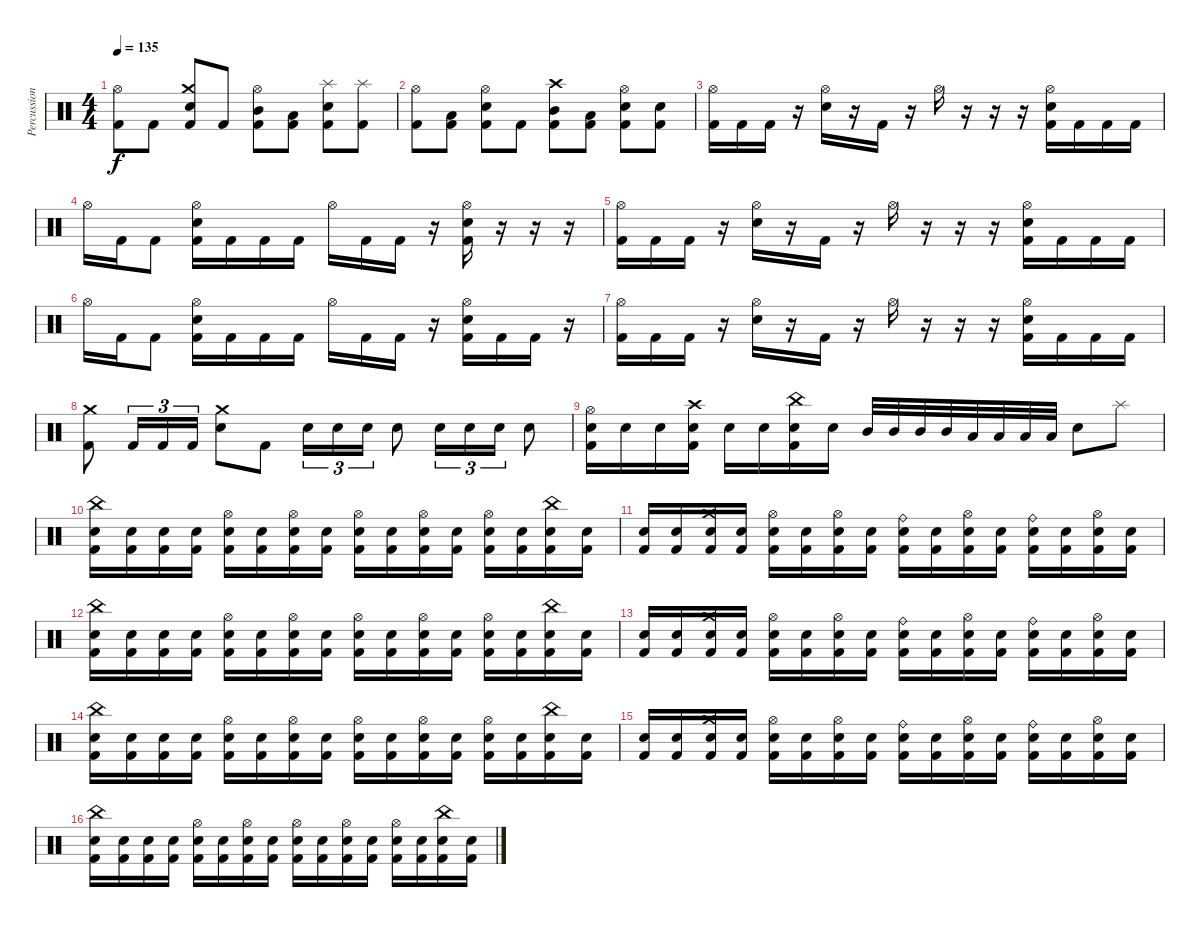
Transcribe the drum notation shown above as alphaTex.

\track ("Percussion" "Percussion") {instrument percussion}
\staff {score}
\articulation defaults
\ts (4 4)
\tempo 135
\clef neutral
\ks c
("Hi-Hat (open)" "Kick (hit) 2").8{dy f} "Kick (hit) 2".8 ("Crash medium (hit)" "Electric Snare (hit)" "Kick (hit) 2").8 "Kick (hit) 2".8 ("Hi-Hat (open)" "Mid Tom (hit)" "Kick (hit) 2").8 ("Low Tom (hit)" "Kick (hit) 2").8 ("Splash (hit)" "Electric Snare (hit)" "Kick (hit) 2").8 ("Splash (hit)" "Kick (hit) 2").8 |
("Hi-Hat (open)" "Kick (hit) 2").8 ("Low Tom (hit)" "Kick (hit) 2").8 ("Hi-Hat (open)" "Electric Snare (hit)" "Kick (hit) 2").8 "Kick (hit) 2".8 ("Crash high (hit)" "Mid Tom (hit)" "Kick (hit) 2").8 ("Low Tom (hit)" "Kick (hit) 2").8 ("Hi-Hat (open)" "Electric Snare (hit)" "Kick (hit) 2").8 ("Electric Snare (hit)" "Kick (hit) 2").8 |
("Hi-Hat (open)" "Kick (hit) 2").16 "Kick (hit) 2".16 "Kick (hit) 2".16 r.16 ("Hi-Hat (open)" "Electric Snare (hit)").16 r.16 "Kick (hit) 2".16 r.16 "Hi-Hat (open)".16 r.16 r.16 r.16 ("Hi-Hat (open)" "Electric Snare (hit)" "Kick (hit) 2").16 "Kick (hit) 2".16 "Kick (hit) 2".16 "Kick (hit) 2".16 |
"Hi-Hat (open)".16 "Kick (hit) 2".16 "Kick (hit) 2".8 ("Hi-Hat (open)" "Electric Snare (hit)" "Kick (hit) 2").16 "Kick (hit) 2".16 "Kick (hit) 2".16 "Kick (hit) 2".16 "Hi-Hat (open)".16 "Kick (hit) 2".16 "Kick (hit) 2".16 r.16 ("Hi-Hat (open)" "Electric Snare (hit)" "Kick (hit) 2").16 r.16 r.16 r.16 |
("Hi-Hat (open)" "Kick (hit) 2").16 "Kick (hit) 2".16 "Kick (hit) 2".16 r.16 ("Hi-Hat (open)" "Electric Snare (hit)").16 r.16 "Kick (hit) 2".16 r.16 "Hi-Hat (open)".16 r.16 r.16 r.16 ("Hi-Hat (open)" "Electric Snare (hit)" "Kick (hit) 2").16 "Kick (hit) 2".16 "Kick (hit) 2".16 "Kick (hit) 2".16 |
"Hi-Hat (open)".16 "Kick (hit) 2".16 "Kick (hit) 2".8 ("Hi-Hat (open)" "Electric Snare (hit)" "Kick (hit) 2").16 "Kick (hit) 2".16 "Kick (hit) 2".16 "Kick (hit) 2".16 "Hi-Hat (open)".16 "Kick (hit) 2".16 "Kick (hit) 2".16 r.16 ("Hi-Hat (open)" "Electric Snare (hit)" "Kick (hit) 2").16 "Kick (hit) 2".16 "Kick (hit) 2".16 r.16 |
("Hi-Hat (open)" "Kick (hit) 2").16 "Kick (hit) 2".16 "Kick (hit) 2".16 r.16 ("Hi-Hat (open)" "Electric Snare (hit)").16 r.16 "Kick (hit) 2".16 r.16 "Hi-Hat (open)".16 r.16 r.16 r.16 ("Hi-Hat (open)" "Electric Snare (hit)" "Kick (hit) 2").16 "Kick (hit) 2".16 "Kick (hit) 2".16 "Kick (hit) 2".16 |
("Crash medium (hit)" "Kick (hit) 2").8 "Kick (hit) 2".16{tu (3 2)} "Kick (hit) 2".16{tu (3 2)} "Kick (hit) 2".16{tu (3 2)} ("Crash medium (hit)" "Electric Snare (hit)").8 "Kick (hit) 2".8 "Electric Snare (hit)".16{tu (3 2)} "Electric Snare (hit)".16{tu (3 2)} "Electric Snare (hit)".16{tu (3 2)} "Electric Snare (hit)".8 "Electric Snare (hit)".16{tu (3 2)} "Electric Snare (hit)".16{tu (3 2)} "Electric Snare (hit)".16{tu (3 2)} "Electric Snare (hit)".8 |
("Hi-Hat (open)" "Kick (hit) 2" "Electric Snare (hit)").16 "Electric Snare (hit)".16 "Electric Snare (hit)".16 ("Crash high (hit)" "Kick (hit) 2" "Electric Snare (hit)").16 "Electric Snare (hit)".16 "Electric Snare (hit)".16 ("China (hit)" "Kick (hit) 2" "Electric Snare (hit)").16 "Electric Snare (hit)".16 "Mid Tom (hit)".32 "Mid Tom (hit)".32 "Mid Tom (hit)".32 "Mid Tom (hit)".32 "Low Tom (hit)".32 "Low Tom (hit)".32 "Low Tom (hit)".32 "Low Tom (hit)".32 "Electric Snare (hit)".8 "Splash (hit)".8 |
("China (hit)" "Electric Snare (hit)" "Kick (hit) 2").16 ("Electric Snare (hit)" "Kick (hit) 2").16 ("Electric Snare (hit)" "Kick (hit) 2").16 ("Electric Snare (hit)" "Kick (hit) 2").16 ("Hi-Hat (open)" "Electric Snare (hit)" "Kick (hit) 2").16 ("Electric Snare (hit)" "Kick (hit) 2").16 ("Hi-Hat (open)" "Electric Snare (hit)" "Kick (hit) 2").16 ("Electric Snare (hit)" "Kick (hit) 2").16 ("Hi-Hat (open)" "Electric Snare (hit)" "Kick (hit) 2").16 ("Electric Snare (hit)" "Kick (hit) 2").16 ("Hi-Hat (open)" "Electric Snare (hit)" "Kick (hit) 2").16 ("Electric Snare (hit)" "Kick (hit) 2").16 ("Hi-Hat (open)" "Electric Snare (hit)" "Kick (hit) 2").16 ("Electric Snare (hit)" "Kick (hit) 2").16 ("China (hit)" "Electric Snare (hit)" "Kick (hit) 2").16 ("Electric Snare (hit)" "Kick (hit) 2").16 |
("Electric Snare (hit)" "Kick (hit) 2").16 ("Electric Snare (hit)" "Kick (hit) 2").16 ("Crash medium (hit)" "Electric Snare (hit)" "Kick (hit) 2").16 ("Electric Snare (hit)" "Kick (hit) 2").16 ("Hi-Hat (open)" "Electric Snare (hit)" "Kick (hit) 2").16 ("Electric Snare (hit)" "Kick (hit) 2").16 ("Hi-Hat (open)" "Electric Snare (hit)" "Kick (hit) 2").16 ("Electric Snare (hit)" "Kick (hit) 2").16 ("Ride (bell)" "Electric Snare (hit)" "Kick (hit) 2").16 ("Electric Snare (hit)" "Kick (hit) 2").16 ("Hi-Hat (open)" "Electric Snare (hit)" "Kick (hit) 2").16 ("Electric Snare (hit)" "Kick (hit) 2").16 ("Ride (bell)" "Electric Snare (hit)" "Kick (hit) 2").16 ("Electric Snare (hit)" "Kick (hit) 2").16 ("Hi-Hat (open)" "Electric Snare (hit)" "Kick (hit) 2").16 ("Electric Snare (hit)" "Kick (hit) 2").16 |
("China (hit)" "Electric Snare (hit)" "Kick (hit) 2").16 ("Electric Snare (hit)" "Kick (hit) 2").16 ("Electric Snare (hit)" "Kick (hit) 2").16 ("Electric Snare (hit)" "Kick (hit) 2").16 ("Hi-Hat (open)" "Electric Snare (hit)" "Kick (hit) 2").16 ("Electric Snare (hit)" "Kick (hit) 2").16 ("Hi-Hat (open)" "Electric Snare (hit)" "Kick (hit) 2").16 ("Electric Snare (hit)" "Kick (hit) 2").16 ("Hi-Hat (open)" "Electric Snare (hit)" "Kick (hit) 2").16 ("Electric Snare (hit)" "Kick (hit) 2").16 ("Hi-Hat (open)" "Electric Snare (hit)" "Kick (hit) 2").16 ("Electric Snare (hit)" "Kick (hit) 2").16 ("Hi-Hat (open)" "Electric Snare (hit)" "Kick (hit) 2").16 ("Electric Snare (hit)" "Kick (hit) 2").16 ("China (hit)" "Electric Snare (hit)" "Kick (hit) 2").16 ("Electric Snare (hit)" "Kick (hit) 2").16 |
("Electric Snare (hit)" "Kick (hit) 2").16 ("Electric Snare (hit)" "Kick (hit) 2").16 ("Crash medium (hit)" "Electric Snare (hit)" "Kick (hit) 2").16 ("Electric Snare (hit)" "Kick (hit) 2").16 ("Hi-Hat (open)" "Electric Snare (hit)" "Kick (hit) 2").16 ("Electric Snare (hit)" "Kick (hit) 2").16 ("Hi-Hat (open)" "Electric Snare (hit)" "Kick (hit) 2").16 ("Electric Snare (hit)" "Kick (hit) 2").16 ("Ride (bell)" "Electric Snare (hit)" "Kick (hit) 2").16 ("Electric Snare (hit)" "Kick (hit) 2").16 ("Hi-Hat (open)" "Electric Snare (hit)" "Kick (hit) 2").16 ("Electric Snare (hit)" "Kick (hit) 2").16 ("Ride (bell)" "Electric Snare (hit)" "Kick (hit) 2").16 ("Electric Snare (hit)" "Kick (hit) 2").16 ("Hi-Hat (open)" "Electric Snare (hit)" "Kick (hit) 2").16 ("Electric Snare (hit)" "Kick (hit) 2").16 |
("China (hit)" "Electric Snare (hit)" "Kick (hit) 2").16 ("Electric Snare (hit)" "Kick (hit) 2").16 ("Electric Snare (hit)" "Kick (hit) 2").16 ("Electric Snare (hit)" "Kick (hit) 2").16 ("Hi-Hat (open)" "Electric Snare (hit)" "Kick (hit) 2").16 ("Electric Snare (hit)" "Kick (hit) 2").16 ("Hi-Hat (open)" "Electric Snare (hit)" "Kick (hit) 2").16 ("Electric Snare (hit)" "Kick (hit) 2").16 ("Hi-Hat (open)" "Electric Snare (hit)" "Kick (hit) 2").16 ("Electric Snare (hit)" "Kick (hit) 2").16 ("Hi-Hat (open)" "Electric Snare (hit)" "Kick (hit) 2").16 ("Electric Snare (hit)" "Kick (hit) 2").16 ("Hi-Hat (open)" "Electric Snare (hit)" "Kick (hit) 2").16 ("Electric Snare (hit)" "Kick (hit) 2").16 ("China (hit)" "Electric Snare (hit)" "Kick (hit) 2").16 ("Electric Snare (hit)" "Kick (hit) 2").16 |
("Electric Snare (hit)" "Kick (hit) 2").16 ("Electric Snare (hit)" "Kick (hit) 2").16 ("Crash medium (hit)" "Electric Snare (hit)" "Kick (hit) 2").16 ("Electric Snare (hit)" "Kick (hit) 2").16 ("Hi-Hat (open)" "Electric Snare (hit)" "Kick (hit) 2").16 ("Electric Snare (hit)" "Kick (hit) 2").16 ("Hi-Hat (open)" "Electric Snare (hit)" "Kick (hit) 2").16 ("Electric Snare (hit)" "Kick (hit) 2").16 ("Ride (bell)" "Electric Snare (hit)" "Kick (hit) 2").16 ("Electric Snare (hit)" "Kick (hit) 2").16 ("Hi-Hat (open)" "Electric Snare (hit)" "Kick (hit) 2").16 ("Electric Snare (hit)" "Kick (hit) 2").16 ("Ride (bell)" "Electric Snare (hit)" "Kick (hit) 2").16 ("Electric Snare (hit)" "Kick (hit) 2").16 ("Hi-Hat (open)" "Electric Snare (hit)" "Kick (hit) 2").16 ("Electric Snare (hit)" "Kick (hit) 2").16 |
("China (hit)" "Electric Snare (hit)" "Kick (hit) 2").16 ("Electric Snare (hit)" "Kick (hit) 2").16 ("Electric Snare (hit)" "Kick (hit) 2").16 ("Electric Snare (hit)" "Kick (hit) 2").16 ("Hi-Hat (open)" "Electric Snare (hit)" "Kick (hit) 2").16 ("Electric Snare (hit)" "Kick (hit) 2").16 ("Hi-Hat (open)" "Electric Snare (hit)" "Kick (hit) 2").16 ("Electric Snare (hit)" "Kick (hit) 2").16 ("Hi-Hat (open)" "Electric Snare (hit)" "Kick (hit) 2").16 ("Electric Snare (hit)" "Kick (hit) 2").16 ("Hi-Hat (open)" "Electric Snare (hit)" "Kick (hit) 2").16 ("Electric Snare (hit)" "Kick (hit) 2").16 ("Hi-Hat (open)" "Electric Snare (hit)" "Kick (hit) 2").16 ("Electric Snare (hit)" "Kick (hit) 2").16 ("China (hit)" "Electric Snare (hit)" "Kick (hit) 2").16 ("Electric Snare (hit)" "Kick (hit) 2").16
